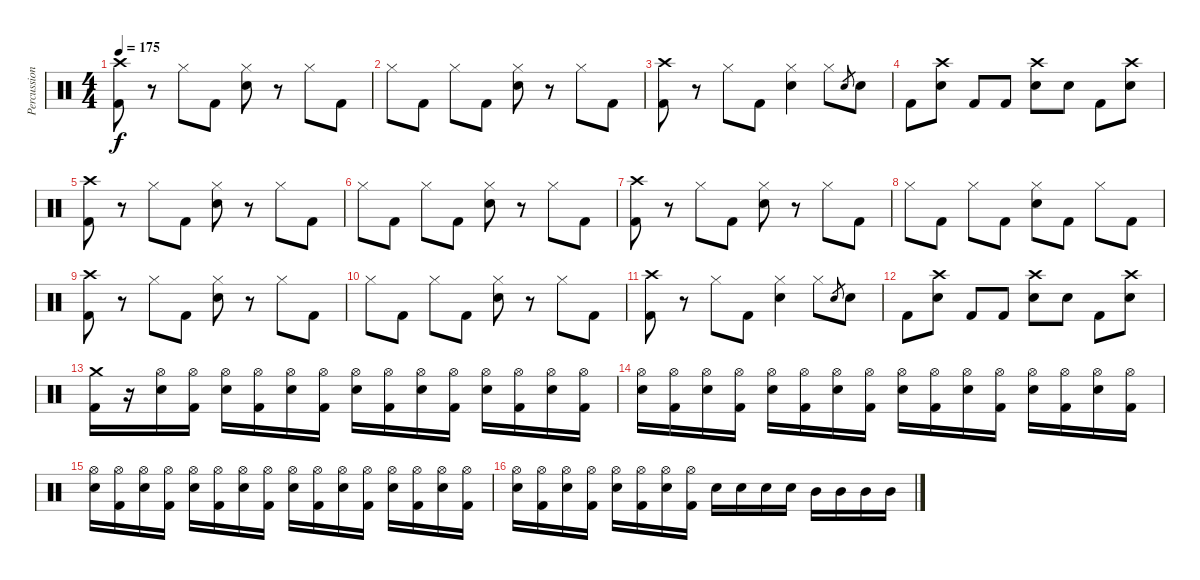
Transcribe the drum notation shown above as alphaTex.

\track ("Percussion" "Percussion") {instrument percussion}
\staff {score}
\articulation defaults
\ts (4 4)
\tempo 175
\clef neutral
\ks c
("Kick (hit) 2" "Crash high (hit)").8{dy f} r.8 "Hi-Hat (closed)".8 "Kick (hit) 2".8 ("Electric Snare (hit)" "Hi-Hat (closed)").8 r.8 "Hi-Hat (closed)".8 "Kick (hit) 2".8 |
"Hi-Hat (closed)".8 "Kick (hit) 2".8 "Hi-Hat (closed)".8 "Kick (hit) 2".8 ("Electric Snare (hit)" "Hi-Hat (closed)").8 r.8 "Hi-Hat (closed)".8 "Kick (hit) 2".8 |
("Kick (hit) 2" "Crash high (hit)").8 r.8 "Hi-Hat (closed)".8 "Kick (hit) 2".8 ("Electric Snare (hit)" "Hi-Hat (closed)").4 "Hi-Hat (closed)".8 "Electric Snare (hit)".8{gr} "Electric Snare (hit)".8 |
"Kick (hit) 2".8 ("Electric Snare (hit)" "Crash high (hit)").8 "Kick (hit) 2".8 "Kick (hit) 2".8 ("Electric Snare (hit)" "Crash high (hit)").8 "Electric Snare (hit)".8 "Kick (hit) 2".8 ("Electric Snare (hit)" "Crash high (hit)").8 |
("Kick (hit) 2" "Crash high (hit)").8 r.8 "Hi-Hat (closed)".8 "Kick (hit) 2".8 ("Electric Snare (hit)" "Hi-Hat (closed)").8 r.8 "Hi-Hat (closed)".8 "Kick (hit) 2".8 |
"Hi-Hat (closed)".8 "Kick (hit) 2".8 "Hi-Hat (closed)".8 "Kick (hit) 2".8 ("Electric Snare (hit)" "Hi-Hat (closed)").8 r.8 "Hi-Hat (closed)".8 "Kick (hit) 2".8 |
("Kick (hit) 2" "Crash high (hit)").8 r.8 "Hi-Hat (closed)".8 "Kick (hit) 2".8 ("Electric Snare (hit)" "Hi-Hat (closed)").8 r.8 "Hi-Hat (closed)".8 "Kick (hit) 2".8 |
"Hi-Hat (closed)".8 "Kick (hit) 2".8 "Hi-Hat (closed)".8 "Kick (hit) 2".8 ("Electric Snare (hit)" "Hi-Hat (closed)").8 "Kick (hit) 2".8 "Hi-Hat (closed)".8 "Kick (hit) 2".8 |
("Kick (hit) 2" "Crash high (hit)").8 r.8 "Hi-Hat (closed)".8 "Kick (hit) 2".8 ("Electric Snare (hit)" "Hi-Hat (closed)").8 r.8 "Hi-Hat (closed)".8 "Kick (hit) 2".8 |
"Hi-Hat (closed)".8 "Kick (hit) 2".8 "Hi-Hat (closed)".8 "Kick (hit) 2".8 ("Electric Snare (hit)" "Hi-Hat (closed)").8 r.8 "Hi-Hat (closed)".8 "Kick (hit) 2".8 |
("Kick (hit) 2" "Crash high (hit)").8 r.8 "Hi-Hat (closed)".8 "Kick (hit) 2".8 ("Electric Snare (hit)" "Hi-Hat (closed)").4 "Hi-Hat (closed)".8 "Electric Snare (hit)".8{gr} "Electric Snare (hit)".8 |
"Kick (hit) 2".8 ("Electric Snare (hit)" "Crash high (hit)").8 "Kick (hit) 2".8 "Kick (hit) 2".8 ("Electric Snare (hit)" "Crash high (hit)").8 "Electric Snare (hit)".8 "Kick (hit) 2".8 ("Electric Snare (hit)" "Crash high (hit)").8 |
("Kick (hit) 2" "Crash medium (hit)").16 r.16 ("Electric Snare (hit)" "Hi-Hat (open)").16 ("Kick (hit) 2" "Hi-Hat (open)").16 ("Electric Snare (hit)" "Hi-Hat (open)").16 ("Kick (hit) 2" "Hi-Hat (open)").16 ("Electric Snare (hit)" "Hi-Hat (open)").16 ("Kick (hit) 2" "Hi-Hat (open)").16 ("Electric Snare (hit)" "Hi-Hat (open)").16 ("Kick (hit) 2" "Hi-Hat (open)").16 ("Electric Snare (hit)" "Hi-Hat (open)").16 ("Kick (hit) 2" "Hi-Hat (open)").16 ("Electric Snare (hit)" "Hi-Hat (open)").16 ("Kick (hit) 2" "Hi-Hat (open)").16 ("Electric Snare (hit)" "Hi-Hat (open)").16 ("Kick (hit) 2" "Hi-Hat (open)").16 |
("Electric Snare (hit)" "Hi-Hat (open)").16 ("Kick (hit) 2" "Hi-Hat (open)").16 ("Electric Snare (hit)" "Hi-Hat (open)").16 ("Kick (hit) 2" "Hi-Hat (open)").16 ("Electric Snare (hit)" "Hi-Hat (open)").16 ("Kick (hit) 2" "Hi-Hat (open)").16 ("Electric Snare (hit)" "Hi-Hat (open)").16 ("Kick (hit) 2" "Hi-Hat (open)").16 ("Electric Snare (hit)" "Hi-Hat (open)").16 ("Kick (hit) 2" "Hi-Hat (open)").16 ("Electric Snare (hit)" "Hi-Hat (open)").16 ("Kick (hit) 2" "Hi-Hat (open)").16 ("Electric Snare (hit)" "Hi-Hat (open)").16 ("Kick (hit) 2" "Hi-Hat (open)").16 ("Electric Snare (hit)" "Hi-Hat (open)").16 ("Kick (hit) 2" "Hi-Hat (open)").16 |
("Electric Snare (hit)" "Hi-Hat (open)").16 ("Kick (hit) 2" "Hi-Hat (open)").16 ("Electric Snare (hit)" "Hi-Hat (open)").16 ("Kick (hit) 2" "Hi-Hat (open)").16 ("Electric Snare (hit)" "Hi-Hat (open)").16 ("Kick (hit) 2" "Hi-Hat (open)").16 ("Electric Snare (hit)" "Hi-Hat (open)").16 ("Kick (hit) 2" "Hi-Hat (open)").16 ("Electric Snare (hit)" "Hi-Hat (open)").16 ("Kick (hit) 2" "Hi-Hat (open)").16 ("Electric Snare (hit)" "Hi-Hat (open)").16 ("Kick (hit) 2" "Hi-Hat (open)").16 ("Electric Snare (hit)" "Hi-Hat (open)").16 ("Kick (hit) 2" "Hi-Hat (open)").16 ("Electric Snare (hit)" "Hi-Hat (open)").16 ("Kick (hit) 2" "Hi-Hat (open)").16 |
("Electric Snare (hit)" "Hi-Hat (open)").16 ("Kick (hit) 2" "Hi-Hat (open)").16 ("Electric Snare (hit)" "Hi-Hat (open)").16 ("Kick (hit) 2" "Hi-Hat (open)").16 ("Electric Snare (hit)" "Hi-Hat (open)").16 ("Kick (hit) 2" "Hi-Hat (open)").16 ("Electric Snare (hit)" "Hi-Hat (open)").16 ("Kick (hit) 2" "Hi-Hat (open)").16 "Electric Snare (hit)".16 "Electric Snare (hit)".16 "Electric Snare (hit)".16 "Electric Snare (hit)".16 "Mid Tom (hit)".16 "Mid Tom (hit)".16 "Mid Tom (hit)".16 "Mid Tom (hit)".16
